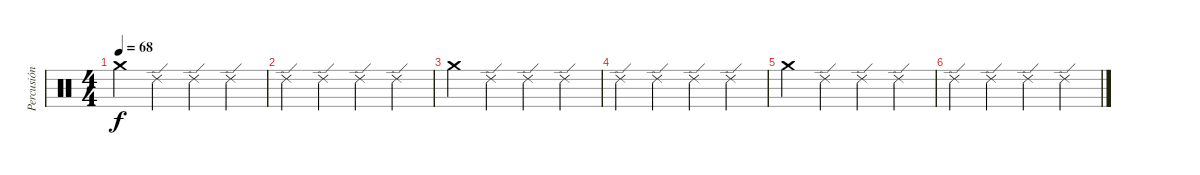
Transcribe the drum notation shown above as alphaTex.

\track ("Percusión" "Percusión") {instrument percussion}
\staff {score}
\articulation defaults
\ts (4 4)
\tempo 68
\clef neutral
\ks c "Crash medium (hit)".4{dy f} "Ride (edge) 2".4 "Ride (edge) 2".4 "Ride (edge) 2".4
|
"Ride (edge) 2".4 "Ride (edge) 2".4 "Ride (edge) 2".4 "Ride (edge) 2".4 |
"Crash medium (hit)".4 "Ride (edge) 2".4 "Ride (edge) 2".4 "Ride (edge) 2".4 |
"Ride (edge) 2".4 "Ride (edge) 2".4 "Ride (edge) 2".4 "Ride (edge) 2".4 |
"Crash medium (hit)".4 "Ride (edge) 2".4 "Ride (edge) 2".4 "Ride (edge) 2".4 |
"Ride (edge) 2".4 "Ride (edge) 2".4 "Ride (edge) 2".4 "Ride (edge) 2".4
